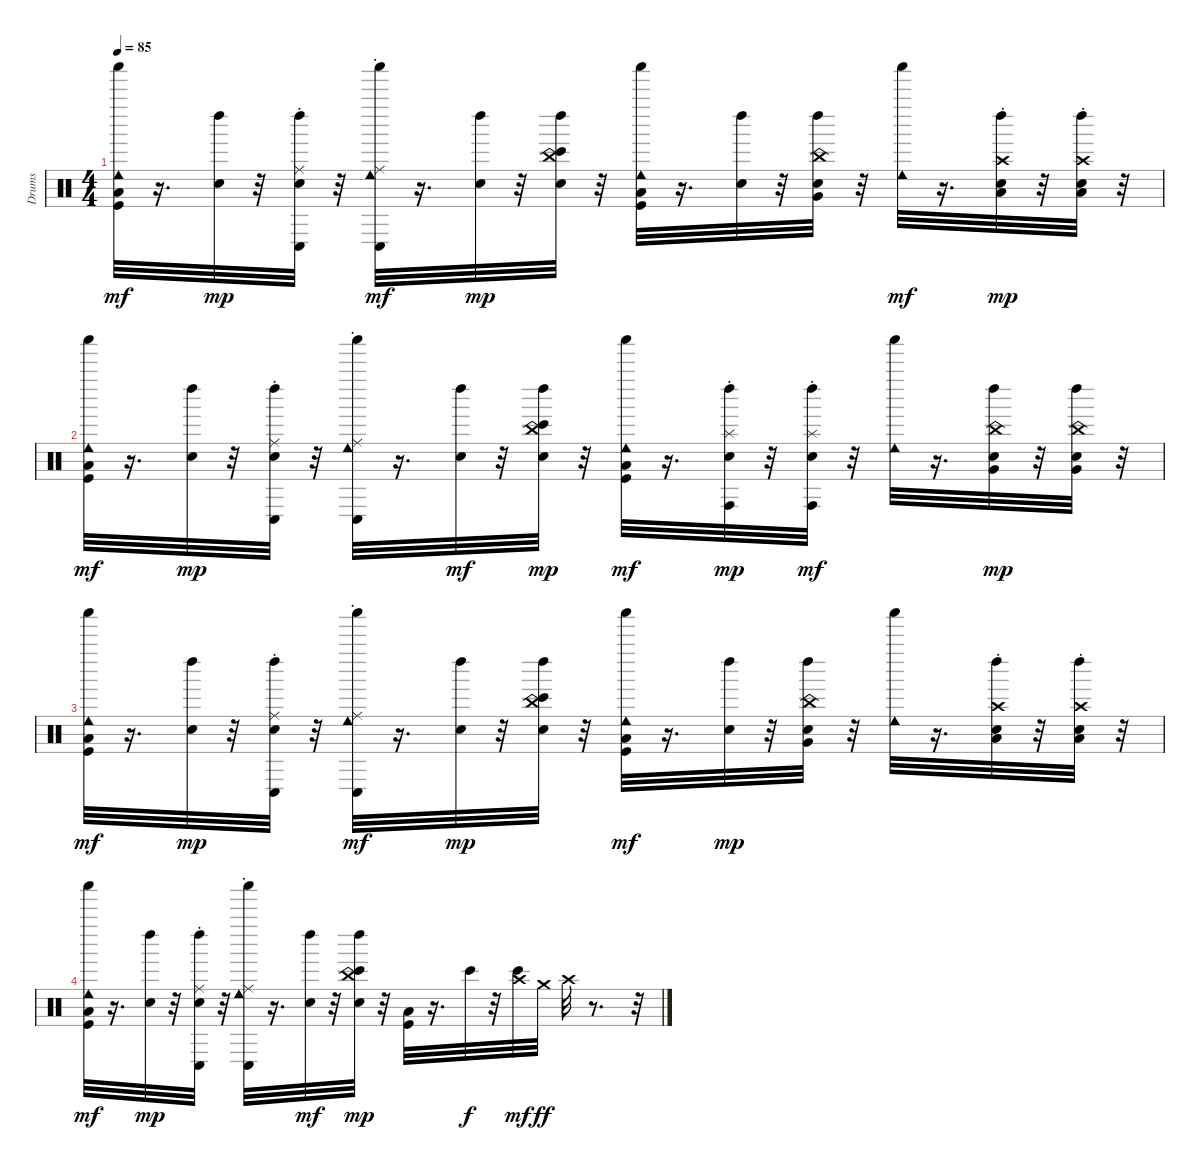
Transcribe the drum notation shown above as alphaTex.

\track ("Drums" "Drums") {instrument percussion}
\staff {score}
\articulation defaults
\ts (4 4)
\tempo 85
\clef neutral
\ks c
("Low Floor Tom (hit)" "Kick (hit)" "Shaker (hit)" "Cowbell low (hit)").32{dy mf} r.16{d} ("Left Maraca (hit)" "Snare (hit)").32{dy mp} r.32 ("Conga low (hit)" "Ride (choke)" "Snare (hit)" "Left Maraca (hit)").32 r.32 ("Shaker (hit)" "Cowbell low (hit)" "Conga low (hit)" "Ride (choke)").32{dy mf} r.16{d} ("Left Maraca (hit)" "Snare (hit)").32{dy mp} r.32 ("Bongo High (hit)" "China (choke)" "Left Maraca (hit)" "Snare (hit)").32 r.32 ("Low Floor Tom (hit)" "Kick (hit)" "Cowbell low (hit)" "Shaker (hit)").32 r.16{d} ("Snare (hit)" "Left Maraca (hit)").32 r.32 ("China (choke)" "Very Low Tom (hit)" "Left Maraca (hit)" "Snare (hit)").32 r.32 ("Shaker (hit)" "Cowbell low (hit)").32{dy mf} r.16{d} ("Crash high (choke)" "Low Floor Tom (hit)" "Left Maraca (hit)" "Snare (hit)").32{dy mp} r.32 ("Left Maraca (hit)" "Crash high (choke)" "Snare (hit)" "Low Floor Tom (hit)").32 r.32 |
("Low Floor Tom (hit)" "Kick (hit)" "Shaker (hit)" "Cowbell low (hit)").32{dy mf} r.16{d} ("Left Maraca (hit)" "Snare (hit)").32{dy mp} r.32 ("Conga low (hit)" "Ride (choke)" "Left Maraca (hit)" "Snare (hit)").32 r.32 ("Shaker (hit)" "Cowbell low (hit)" "Conga low (hit)" "Ride (choke)").32 r.16{d} ("Left Maraca (hit)" "Snare (hit)").32{dy mf} r.32 ("Bongo High (hit)" "China (choke)" "Left Maraca (hit)" "Snare (hit)").32{dy mp} r.32 ("Low Floor Tom (hit)" "Kick (hit)" "Shaker (hit)" "Cowbell low (hit)").32{dy mf} r.16{d} ("Conga high (hit)" "Splash (choke)" "Left Maraca (hit)" "Snare (hit)").32{dy mp} r.32 ("Left Maraca (hit)" "Snare (hit)" "Conga high (hit)" "Splash (choke)").32{dy mf} r.32 ("Shaker (hit)" "Cowbell low (hit)").32 r.16{d} ("Very Low Tom (hit)" "China (choke)" "Snare (hit)" "Left Maraca (hit)").32{dy mp} r.32 ("China (choke)" "Left Maraca (hit)" "Very Low Tom (hit)" "Snare (hit)").32 r.32 |
("Low Floor Tom (hit)" "Kick (hit)" "Shaker (hit)" "Cowbell low (hit)").32{dy mf} r.16{d} ("Left Maraca (hit)" "Snare (hit)").32{dy mp} r.32 ("Ride (choke)" "Conga low (hit)" "Left Maraca (hit)" "Snare (hit)").32 r.32 ("Shaker (hit)" "Cowbell low (hit)" "Conga low (hit)" "Ride (choke)").32{dy mf} r.16{d} ("Left Maraca (hit)" "Snare (hit)").32{dy mp} r.32 ("Bongo High (hit)" "China (choke)" "Left Maraca (hit)" "Snare (hit)").32 r.32 ("Low Floor Tom (hit)" "Kick (hit)" "Shaker (hit)" "Cowbell low (hit)").32{dy mf} r.16{d} ("Snare (hit)" "Left Maraca (hit)").32{dy mp} r.32 ("China (choke)" "Left Maraca (hit)" "Very Low Tom (hit)" "Snare (hit)").32 r.32 ("Cowbell low (hit)" "Shaker (hit)").32 r.16{d} ("Crash high (choke)" "Low Floor Tom (hit)" "Left Maraca (hit)" "Snare (hit)").32 r.32 ("Left Maraca (hit)" "Snare (hit)" "Crash high (choke)" "Low Floor Tom (hit)").32 r.32 |
("Low Floor Tom (hit)" "Kick (hit)" "Shaker (hit)" "Cowbell low (hit)").32{dy mf} r.16{d} ("Snare (hit)" "Left Maraca (hit)").32{dy mp} r.32 ("Conga low (hit)" "Ride (choke)" "Left Maraca (hit)" "Snare (hit)").32 r.32 ("Cowbell low (hit)" "Shaker (hit)" "Conga low (hit)" "Ride (choke)").32 r.16{d} ("Left Maraca (hit)" "Snare (hit)").32{dy mf} r.32 ("Bongo High (hit)" "Left Maraca (hit)" "China (choke)" "Snare (hit)").32{dy mp} r.32 ("Low Floor Tom (hit)" "Kick (hit)").32 r.16{d} "Bongo High (hit)".32{dy f} r.32 ("Crash high (hit)" "Bongo High (hit)").32{dy mf} "Crash medium (hit)".32{dy ff} "Crash high (hit)".32 r.8{d} r.32
